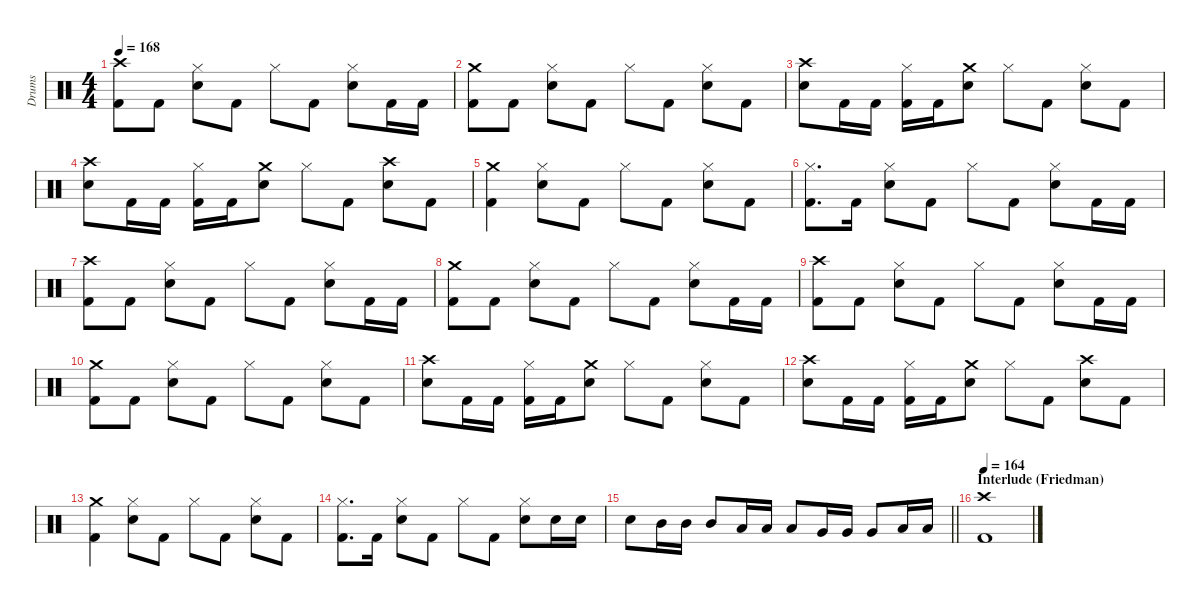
\defaultSystemsLayout 4
\hideDynamics
\bracketExtendMode nobrackets
\firstSystemTrackNameMode fullname
\otherSystemsTrackNameOrientation horizontal
\track ("Drums" "drm.") {instrument percussion}
\staff {score}
\articulation defaults
\ts (4 4)
\tempo 168
\clef neutral
\ks c
("Crash high (hit)" "Kick (hit) 2").8{dy f beam Down} "Kick (hit) 2".8{beam Down} ("Hi-Hat (closed)" "Snare (hit) 2").8{beam Down} "Kick (hit) 2".8{beam Down} "Hi-Hat (closed)".8{beam Down} "Kick (hit) 2".8{beam Down} ("Hi-Hat (closed)" "Snare (hit) 2").8{beam Down} "Kick (hit) 2".16{beam Down} "Kick (hit) 2".16{beam Down} |
("Crash medium (hit)" "Kick (hit) 2").8{beam Down} "Kick (hit) 2".8{beam Down} ("Hi-Hat (closed)" "Snare (hit) 2").8{beam Down} "Kick (hit) 2".8{beam Down} "Hi-Hat (closed)".8{beam Down} "Kick (hit) 2".8{beam Down} ("Hi-Hat (closed)" "Snare (hit) 2").8{beam Down} "Kick (hit) 2".8{beam Down} |
("Crash high (hit)" "Snare (hit) 2").8{beam Down} "Kick (hit) 2".16{beam Down} "Kick (hit) 2".16{beam Down} ("Hi-Hat (closed)" "Kick (hit) 2").16{beam Down} "Kick (hit) 2".16{beam Down} ("Crash medium (hit)" "Snare (hit) 2").8{beam Down} "Hi-Hat (closed)".8{beam Down} "Kick (hit) 2".8{beam Down} ("Hi-Hat (closed)" "Snare (hit) 2").8{beam Down} "Kick (hit) 2".8{beam Down} |
("Crash high (hit)" "Snare (hit) 2").8{beam Down} "Kick (hit) 2".16{beam Down} "Kick (hit) 2".16{beam Down} ("Hi-Hat (closed)" "Kick (hit) 2").16{beam Down} "Kick (hit) 2".16{beam Down} ("Crash medium (hit)" "Snare (hit) 2").8{beam Down} "Hi-Hat (closed)".8{beam Down} "Kick (hit) 2".8{beam Down} ("Crash high (hit)" "Snare (hit) 2").8{beam Down} "Kick (hit) 2".8{beam Down} |
("Crash medium (hit)" "Kick (hit) 2").4{beam Down} ("Hi-Hat (closed)" "Snare (hit) 2").8{beam Down} "Kick (hit) 2".8{beam Down} "Hi-Hat (closed)".8{beam Down} "Kick (hit) 2".8{beam Down} ("Hi-Hat (closed)" "Snare (hit) 2").8{beam Down} "Kick (hit) 2".8{beam Down} |
("Hi-Hat (closed)" "Kick (hit) 2").8{d beam Down} "Kick (hit) 2".16{beam Down} ("Hi-Hat (closed)" "Snare (hit) 2").8{beam Down} "Kick (hit) 2".8{beam Down} "Hi-Hat (closed)".8{beam Down} "Kick (hit) 2".8{beam Down} ("Hi-Hat (closed)" "Snare (hit) 2").8{beam Down} "Kick (hit) 2".16{beam Down} "Kick (hit) 2".16{beam Down} |
("Crash high (hit)" "Kick (hit) 2").8{beam Down} "Kick (hit) 2".8{beam Down} ("Hi-Hat (closed)" "Snare (hit) 2").8{beam Down} "Kick (hit) 2".8{beam Down} "Hi-Hat (closed)".8{beam Down} "Kick (hit) 2".8{beam Down} ("Hi-Hat (closed)" "Snare (hit) 2").8{beam Down} "Kick (hit) 2".16{beam Down} "Kick (hit) 2".16{beam Down} |
("Crash medium (hit)" "Kick (hit) 2").8{beam Down} "Kick (hit) 2".8{beam Down} ("Hi-Hat (closed)" "Snare (hit) 2").8{beam Down} "Kick (hit) 2".8{beam Down} "Hi-Hat (closed)".8{beam Down} "Kick (hit) 2".8{beam Down} ("Hi-Hat (closed)" "Snare (hit) 2").8{beam Down} "Kick (hit) 2".16{beam Down} "Kick (hit) 2".16{beam Down} |
("Crash high (hit)" "Kick (hit) 2").8{beam Down} "Kick (hit) 2".8{beam Down} ("Hi-Hat (closed)" "Snare (hit) 2").8{beam Down} "Kick (hit) 2".8{beam Down} "Hi-Hat (closed)".8{beam Down} "Kick (hit) 2".8{beam Down} ("Hi-Hat (closed)" "Snare (hit) 2").8{beam Down} "Kick (hit) 2".16{beam Down} "Kick (hit) 2".16{beam Down} |
("Crash medium (hit)" "Kick (hit) 2").8{beam Down} "Kick (hit) 2".8{beam Down} ("Hi-Hat (closed)" "Snare (hit) 2").8{beam Down} "Kick (hit) 2".8{beam Down} "Hi-Hat (closed)".8{beam Down} "Kick (hit) 2".8{beam Down} ("Hi-Hat (closed)" "Snare (hit) 2").8{beam Down} "Kick (hit) 2".8{beam Down} |
("Crash high (hit)" "Snare (hit) 2").8{beam Down} "Kick (hit) 2".16{beam Down} "Kick (hit) 2".16{beam Down} ("Hi-Hat (closed)" "Kick (hit) 2").16{beam Down} "Kick (hit) 2".16{beam Down} ("Crash medium (hit)" "Snare (hit) 2").8{beam Down} "Hi-Hat (closed)".8{beam Down} "Kick (hit) 2".8{beam Down} ("Hi-Hat (closed)" "Snare (hit) 2").8{beam Down} "Kick (hit) 2".8{beam Down} |
("Crash high (hit)" "Snare (hit) 2").8{beam Down} "Kick (hit) 2".16{beam Down} "Kick (hit) 2".16{beam Down} ("Hi-Hat (closed)" "Kick (hit) 2").16{beam Down} "Kick (hit) 2".16{beam Down} ("Crash medium (hit)" "Snare (hit) 2").8{beam Down} "Hi-Hat (closed)".8{beam Down} "Kick (hit) 2".8{beam Down} ("Crash high (hit)" "Snare (hit) 2").8{beam Down} "Kick (hit) 2".8{beam Down} |
("Crash medium (hit)" "Kick (hit) 2").4{beam Down} ("Hi-Hat (closed)" "Snare (hit) 2").8{beam Down} "Kick (hit) 2".8{beam Down} "Hi-Hat (closed)".8{beam Down} "Kick (hit) 2".8{beam Down} ("Hi-Hat (closed)" "Snare (hit) 2").8{beam Down} "Kick (hit) 2".8{beam Down} |
("Hi-Hat (closed)" "Kick (hit) 2").8{d beam Down} "Kick (hit) 2".16{beam Down} ("Hi-Hat (closed)" "Snare (hit) 2").8{beam Down} "Kick (hit) 2".8{beam Down} "Hi-Hat (closed)".8{beam Down} "Kick (hit) 2".8{beam Down} ("Hi-Hat (closed)" "Snare (hit) 2").8{beam Down} "Snare (hit) 2".16{beam Down} "Snare (hit) 2".16{beam Down} |
\barLineRight lightlight "Snare (hit) 2".8{beam Down} "Mid Tom (hit)".16{beam Down} "Mid Tom (hit)".16{beam Down} "Mid Tom (hit)".8{beam Up} "Low Tom (hit)".16{beam Up} "Low Tom (hit)".16{beam Up} "Low Tom (hit)".8{beam Up} "Very Low Tom (hit)".16{beam Up} "Very Low Tom (hit)".16{beam Up} "Very Low Tom (hit)".8{beam Up} "Low Floor Tom (hit)".16{beam Up} "Low Floor Tom (hit)".16{beam Up}
|
\section ("" "Interlude (Friedman)")
\tempo 164
("Crash high (hit)" "Kick (hit) 2").1{beam Down}
